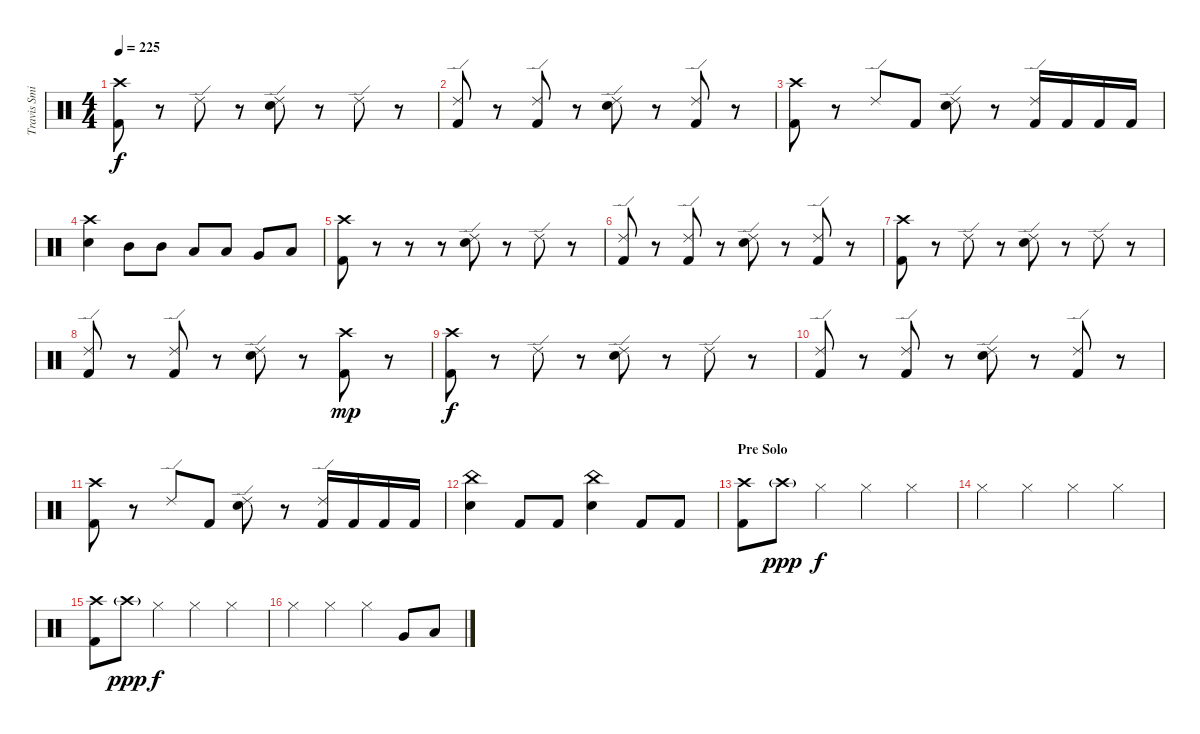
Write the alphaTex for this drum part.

\track ("Travis Smith" "Travis Smi") {instrument percussion}
\staff {score}
\articulation defaults
\ts (4 4)
\tempo 225
\clef neutral
\ks c
("Crash high (hit)" "Kick (hit) 2").8{dy f} r.8 "Ride (edge) 2".8 r.8 ("Ride (edge) 2" "Electric Snare (hit)").8 r.8 "Ride (edge) 2".8 r.8 |
("Ride (edge) 2" "Kick (hit) 2").8 r.8 ("Ride (edge) 2" "Kick (hit) 2").8 r.8 ("Ride (edge) 2" "Electric Snare (hit)").8 r.8 ("Ride (edge) 2" "Kick (hit) 2").8 r.8 |
("Crash high (hit)" "Kick (hit) 2").8 r.8 "Ride (edge) 2".8 "Kick (hit) 2".8 ("Ride (edge) 2" "Electric Snare (hit)").8 r.8 ("Ride (edge) 2" "Kick (hit) 2").16 "Kick (hit) 2".16 "Kick (hit) 2".16 "Kick (hit) 2".16 |
("Crash high (hit)" "Electric Snare (hit)").4 "Mid Tom (hit)".8 "Mid Tom (hit)".8 "Low Tom (hit)".8 "Low Tom (hit)".8 "Very Low Tom (hit)".8 "Low Floor Tom (hit)".8 |
("Crash high (hit)" "Kick (hit) 2").8 r.8 r.8 r.8 ("Ride (edge) 2" "Electric Snare (hit)").8 r.8 "Ride (edge) 2".8 r.8 |
("Ride (edge) 2" "Kick (hit) 2").8 r.8 ("Ride (edge) 2" "Kick (hit) 2").8 r.8 ("Ride (edge) 2" "Electric Snare (hit)").8 r.8 ("Ride (edge) 2" "Kick (hit) 2").8 r.8 |
("Crash high (hit)" "Kick (hit) 2").8 r.8 "Ride (edge) 2".8 r.8 ("Ride (edge) 2" "Electric Snare (hit)").8 r.8 "Ride (edge) 2".8 r.8 |
("Ride (edge) 2" "Kick (hit) 2").8 r.8 ("Ride (edge) 2" "Kick (hit) 2").8 r.8 ("Ride (edge) 2" "Electric Snare (hit)").8 r.8 ("Crash high (hit)" "Kick (hit) 2").8{dy mp} r.8 |
("Crash high (hit)" "Kick (hit) 2").8{dy f} r.8 "Ride (edge) 2".8 r.8 ("Ride (edge) 2" "Electric Snare (hit)").8 r.8 "Ride (edge) 2".8 r.8 |
("Ride (edge) 2" "Kick (hit) 2").8 r.8 ("Ride (edge) 2" "Kick (hit) 2").8 r.8 ("Ride (edge) 2" "Electric Snare (hit)").8 r.8 ("Ride (edge) 2" "Kick (hit) 2").8 r.8 |
("Crash high (hit)" "Kick (hit) 2").8 r.8 "Ride (edge) 2".8 "Kick (hit) 2".8 ("Ride (edge) 2" "Electric Snare (hit)").8 r.8 ("Ride (edge) 2" "Kick (hit) 2").16 "Kick (hit) 2".16 "Kick (hit) 2".16 "Kick (hit) 2".16 |
("China (hit)" "Electric Snare (hit)").4 "Kick (hit) 2".8 "Kick (hit) 2".8 ("China (hit)" "Electric Snare (hit)").4 "Kick (hit) 2".8 "Kick (hit) 2".8 |
\section ("" "Pre Solo")
("Crash high (hit)" "Kick (hit) 2").8 "Crash high (hit)"{g}.8{dy ppp} "Hi-Hat (closed)".4{dy f} "Hi-Hat (closed)".4 "Hi-Hat (closed)".4 |
"Hi-Hat (closed)".4 "Hi-Hat (closed)".4 "Hi-Hat (closed)".4 "Hi-Hat (closed)".4 |
("Crash high (hit)" "Kick (hit) 2").8 "Crash high (hit)"{g}.8{dy ppp} "Hi-Hat (closed)".4{dy f} "Hi-Hat (closed)".4 "Hi-Hat (closed)".4 |
"Hi-Hat (closed)".4 "Hi-Hat (closed)".4 "Hi-Hat (closed)".4 "Very Low Tom (hit)".8 "Low Floor Tom (hit)".8
